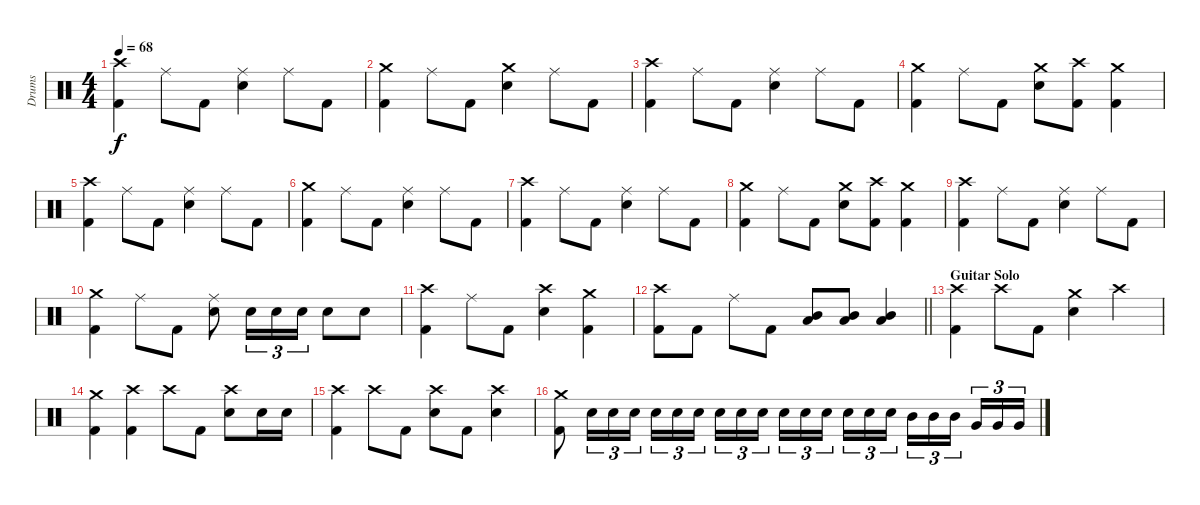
\track ("Drums" "Drums") {instrument percussion}
\staff {score}
\articulation defaults
\ts (4 4)
\tempo 68
\clef neutral
\ks c
("Crash high (hit)" "Kick (hit) 2").4{dy f} "Ride (middle)".8 "Kick (hit) 2".8 ("Ride (middle)" "Electric Snare (hit)").4 "Ride (middle)".8 "Kick (hit) 2".8 |
("Crash medium (hit)" "Kick (hit) 2").4 "Ride (middle)".8 "Kick (hit) 2".8 ("Crash medium (hit)" "Electric Snare (hit)").4 "Ride (middle)".8 "Kick (hit) 2".8 |
("Crash high (hit)" "Kick (hit) 2").4 "Ride (middle)".8 "Kick (hit) 2".8 ("Ride (middle)" "Electric Snare (hit)").4 "Ride (middle)".8 "Kick (hit) 2".8 |
("Crash medium (hit)" "Kick (hit) 2").4 "Ride (middle)".8 "Kick (hit) 2".8 ("Crash medium (hit)" "Electric Snare (hit)").8 ("Crash high (hit)" "Kick (hit) 2").8 ("Crash medium (hit)" "Kick (hit) 2").4 |
("Crash high (hit)" "Kick (hit) 2").4 "Ride (middle)".8 "Kick (hit) 2".8 ("Ride (middle)" "Electric Snare (hit)").4 "Ride (middle)".8 "Kick (hit) 2".8 |
("Crash medium (hit)" "Kick (hit) 2").4 "Ride (middle)".8 "Kick (hit) 2".8 ("Ride (middle)" "Electric Snare (hit)").4 "Ride (middle)".8 "Kick (hit) 2".8 |
("Crash high (hit)" "Kick (hit) 2").4 "Ride (middle)".8 "Kick (hit) 2".8 ("Ride (middle)" "Electric Snare (hit)").4 "Ride (middle)".8 "Kick (hit) 2".8 |
("Crash medium (hit)" "Kick (hit) 2").4 "Ride (middle)".8 "Kick (hit) 2".8 ("Crash medium (hit)" "Electric Snare (hit)").8 ("Crash high (hit)" "Kick (hit) 2").8 ("Crash medium (hit)" "Kick (hit) 2").4 |
("Crash high (hit)" "Kick (hit) 2").4 "Ride (middle)".8 "Kick (hit) 2".8 ("Ride (middle)" "Electric Snare (hit)").4 "Ride (middle)".8 "Kick (hit) 2".8 |
("Crash medium (hit)" "Kick (hit) 2").4 "Ride (middle)".8 "Kick (hit) 2".8 ("Ride (middle)" "Electric Snare (hit)").8 "Electric Snare (hit)".16{tu (3 2)} "Electric Snare (hit)".16{tu (3 2)} "Electric Snare (hit)".16{tu (3 2)} "Electric Snare (hit)".8 "Electric Snare (hit)".8 |
("Crash high (hit)" "Kick (hit) 2").4 "Ride (middle)".8 "Kick (hit) 2".8 ("Crash high (hit)" "Electric Snare (hit)").4 ("Crash medium (hit)" "Kick (hit) 2").4 |
\barLineRight lightlight
("Crash high (hit)" "Kick (hit) 2").8 "Kick (hit) 2".8 "Ride (middle)".8 "Kick (hit) 2".8 ("Mid Tom (hit)" "Low Floor Tom (hit)").8 ("Mid Tom (hit)" "Low Floor Tom (hit)").8 ("Mid Tom (hit)" "Low Floor Tom (hit)").4 |
\section ("" "Guitar Solo")
("Crash high (hit)" "Kick (hit) 2").4 "Crash high (hit)".8 "Kick (hit) 2".8 ("Crash medium (hit)" "Electric Snare (hit)").4 "Crash high (hit)".4 |
("Crash medium (hit)" "Kick (hit) 2").4 ("Crash high (hit)" "Kick (hit) 2").4 "Crash high (hit)".8 "Kick (hit) 2".8 ("Crash high (hit)" "Electric Snare (hit)").8 "Electric Snare (hit)".16 "Electric Snare (hit)".16 |
("Crash high (hit)" "Kick (hit) 2").4 "Crash high (hit)".8 "Kick (hit) 2".8 ("Crash high (hit)" "Electric Snare (hit)").8 "Kick (hit) 2".8 ("Crash high (hit)" "Electric Snare (hit)").4 |
("Crash medium (hit)" "Kick (hit) 2").8 "Electric Snare (hit)".16{tu (3 2)} "Electric Snare (hit)".16{tu (3 2)} "Electric Snare (hit)".16{tu (3 2)} "Electric Snare (hit)".16{tu (3 2)} "Electric Snare (hit)".16{tu (3 2)} "Electric Snare (hit)".16{tu (3 2) beam splitsecondary} "Electric Snare (hit)".16{tu (3 2)} "Electric Snare (hit)".16{tu (3 2)} "Electric Snare (hit)".16{tu (3 2)} "Electric Snare (hit)".16{tu (3 2)} "Electric Snare (hit)".16{tu (3 2)} "Electric Snare (hit)".16{tu (3 2) beam splitsecondary} "Electric Snare (hit)".16{tu (3 2)} "Electric Snare (hit)".16{tu (3 2)} "Electric Snare (hit)".16{tu (3 2)} "Mid Tom (hit)".16{tu (3 2)} "Mid Tom (hit)".16{tu (3 2)} "Mid Tom (hit)".16{tu (3 2) beam splitsecondary} "Very Low Tom (hit)".16{tu (3 2)} "Very Low Tom (hit)".16{tu (3 2)} "Very Low Tom (hit)".16{tu (3 2)}
